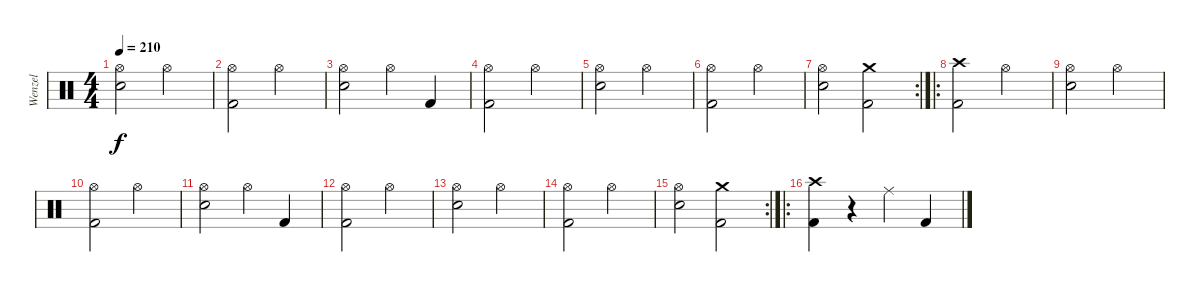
\track ("Wenzel" "Wenzel") {instrument percussion}
\staff {score}
\articulation defaults
\ts (4 4)
\tempo 210
\clef neutral
\ks c
("Hi-Hat (open)" "Snare (hit) 2").2{dy f} "Hi-Hat (open)".2 |
("Hi-Hat (open)" "Kick (hit) 2").2 "Hi-Hat (open)".2 |
("Hi-Hat (open)" "Snare (hit) 2").2 "Hi-Hat (open)".4 "Kick (hit) 2".4 |
("Hi-Hat (open)" "Kick (hit) 2").2 "Hi-Hat (open)".2 |
("Hi-Hat (open)" "Snare (hit) 2").2 "Hi-Hat (open)".2 |
("Hi-Hat (open)" "Kick (hit) 2").2 "Hi-Hat (open)".2 |
\rc 2
("Hi-Hat (open)" "Snare (hit) 2").2 ("Crash medium (hit)" "Kick (hit) 2").2 |
\ro
("Crash high (hit)" "Kick (hit) 2").2 "Hi-Hat (open)".2 |
("Hi-Hat (open)" "Snare (hit) 2").2 "Hi-Hat (open)".2 |
("Hi-Hat (open)" "Kick (hit) 2").2 "Hi-Hat (open)".2 |
("Hi-Hat (open)" "Snare (hit) 2").2 "Hi-Hat (open)".4 "Kick (hit) 2".4 |
("Hi-Hat (open)" "Kick (hit) 2").2 "Hi-Hat (open)".2 |
("Hi-Hat (open)" "Snare (hit) 2").2 "Hi-Hat (open)".2 |
("Hi-Hat (open)" "Kick (hit) 2").2 "Hi-Hat (open)".2 |
\rc 2
("Hi-Hat (open)" "Snare (hit) 2").2 ("Crash medium (hit)" "Kick (hit) 2").2 |
\ro
("Crash high (hit)" "Kick (hit) 2").4 r.4 "Ride (middle)".4 "Kick (hit) 2".4
